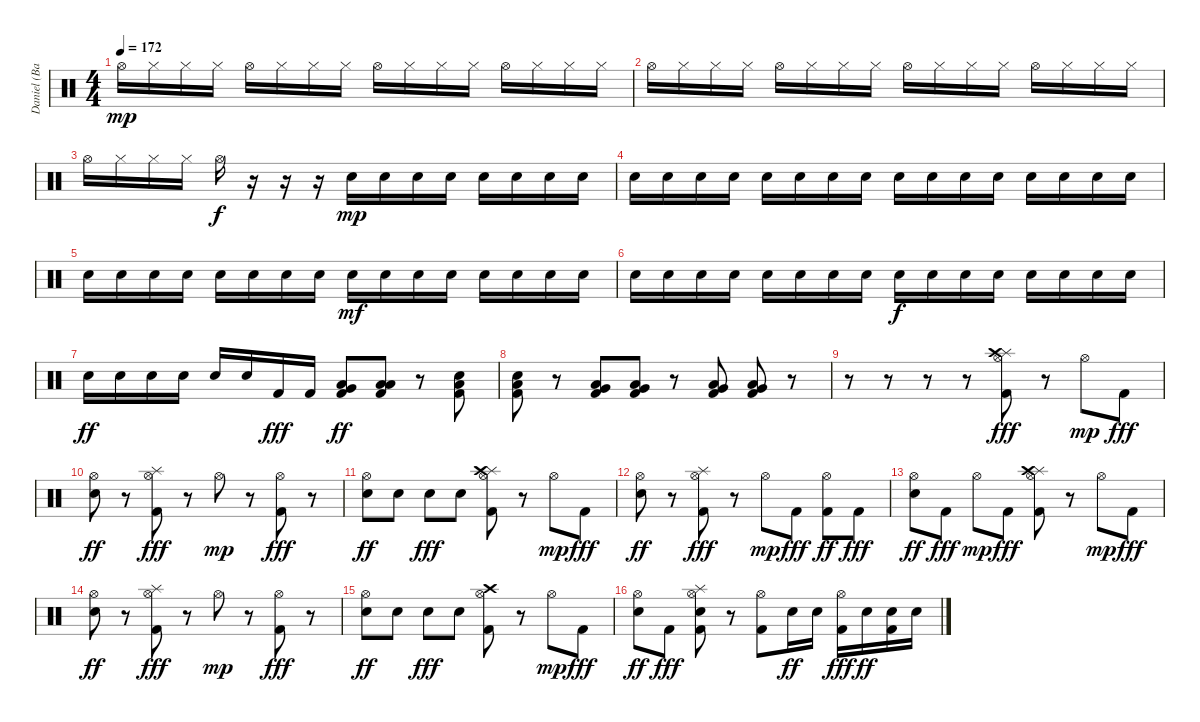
\track ("Daniel (Bateria)" "Daniel (Ba") {instrument percussion}
\staff {score}
\articulation defaults
\ts (4 4)
\tempo 172
\clef neutral
\ks c "Hi-Hat (open)".16{dy mp} "Hi-Hat (closed)".16 "Hi-Hat (closed)".16 "Hi-Hat (closed)".16 "Hi-Hat (open)".16 "Hi-Hat (closed)".16 "Hi-Hat (closed)".16 "Hi-Hat (closed)".16 "Hi-Hat (open)".16 "Hi-Hat (closed)".16 "Hi-Hat (closed)".16 "Hi-Hat (closed)".16 "Hi-Hat (open)".16 "Hi-Hat (closed)".16 "Hi-Hat (closed)".16 "Hi-Hat (closed)".16
|
"Hi-Hat (open)".16 "Hi-Hat (closed)".16 "Hi-Hat (closed)".16 "Hi-Hat (closed)".16 "Hi-Hat (open)".16 "Hi-Hat (closed)".16 "Hi-Hat (closed)".16 "Hi-Hat (closed)".16 "Hi-Hat (open)".16 "Hi-Hat (closed)".16 "Hi-Hat (closed)".16 "Hi-Hat (closed)".16 "Hi-Hat (open)".16 "Hi-Hat (closed)".16 "Hi-Hat (closed)".16 "Hi-Hat (closed)".16 |
"Hi-Hat (open)".16 "Hi-Hat (closed)".16 "Hi-Hat (closed)".16 "Hi-Hat (closed)".16 "Hi-Hat (open)".16{dy f} r.16 r.16 r.16 "Electric Snare (hit)".16{dy mp} "Electric Snare (hit)".16 "Electric Snare (hit)".16 "Electric Snare (hit)".16 "Electric Snare (hit)".16 "Electric Snare (hit)".16 "Electric Snare (hit)".16 "Electric Snare (hit)".16 |
"Electric Snare (hit)".16 "Electric Snare (hit)".16 "Electric Snare (hit)".16 "Electric Snare (hit)".16 "Electric Snare (hit)".16 "Electric Snare (hit)".16 "Electric Snare (hit)".16 "Electric Snare (hit)".16 "Electric Snare (hit)".16 "Electric Snare (hit)".16 "Electric Snare (hit)".16 "Electric Snare (hit)".16 "Electric Snare (hit)".16 "Electric Snare (hit)".16 "Electric Snare (hit)".16 "Electric Snare (hit)".16 |
"Electric Snare (hit)".16 "Electric Snare (hit)".16 "Electric Snare (hit)".16 "Electric Snare (hit)".16 "Electric Snare (hit)".16 "Electric Snare (hit)".16 "Electric Snare (hit)".16 "Electric Snare (hit)".16 "Electric Snare (hit)".16{dy mf} "Electric Snare (hit)".16 "Electric Snare (hit)".16 "Electric Snare (hit)".16 "Electric Snare (hit)".16 "Electric Snare (hit)".16 "Electric Snare (hit)".16 "Electric Snare (hit)".16 |
"Electric Snare (hit)".16 "Electric Snare (hit)".16 "Electric Snare (hit)".16 "Electric Snare (hit)".16 "Electric Snare (hit)".16 "Electric Snare (hit)".16 "Electric Snare (hit)".16 "Electric Snare (hit)".16 "Electric Snare (hit)".16{dy f} "Electric Snare (hit)".16 "Electric Snare (hit)".16 "Electric Snare (hit)".16 "Electric Snare (hit)".16 "Electric Snare (hit)".16 "Electric Snare (hit)".16 "Electric Snare (hit)".16 |
"Electric Snare (hit)".16{dy ff} "Electric Snare (hit)".16 "Electric Snare (hit)".16 "Electric Snare (hit)".16 "Electric Snare (hit)".16 "Electric Snare (hit)".16 "Kick (hit) 2".16{dy fff} "Kick (hit) 2".16 ("Very Low Tom (hit)" "Low Tom (hit)" "Kick (hit) 2").8{dy ff} ("Low Floor Tom (hit)" "Low Tom (hit)" "Kick (hit) 2").8 r.8 ("Low Tom (hit)" "Electric Snare (hit)" "Kick (hit) 2").8 |
("Low Tom (hit)" "Electric Snare (hit)" "Kick (hit) 2").8 r.8 ("Low Floor Tom (hit)" "Very Low Tom (hit)" "Kick (hit) 2").8 ("Low Floor Tom (hit)" "Very Low Tom (hit)" "Kick (hit) 2").8 r.8 ("Low Floor Tom (hit)" "Very Low Tom (hit)" "Kick (hit) 2").8 ("Low Floor Tom (hit)" "Very Low Tom (hit)" "Kick (hit) 2").8 r.8 |
r.8 r.8 r.8 r.8 ("Splash (hit)" "Hi-Hat (open)" "Crash high (hit)" "Kick (hit) 2").8{dy fff} r.8 "Hi-Hat (open)".8{dy mp} "Kick (hit) 2".8{dy fff} |
("Hi-Hat (open)" "Electric Snare (hit)").8{dy ff} r.8 ("Splash (hit)" "Hi-Hat (open)" "Kick (hit) 2").8{dy fff} r.8 "Hi-Hat (open)".8{dy mp} r.8 ("Hi-Hat (open)" "Kick (hit) 2").8{dy fff} r.8 |
("Hi-Hat (open)" "Electric Snare (hit)").8{dy ff} "Electric Snare (hit)".8 "Electric Snare (hit)".8{dy fff} "Electric Snare (hit)".8 ("Splash (hit)" "Hi-Hat (open)" "Crash high (hit)" "Kick (hit) 2").8 r.8 "Hi-Hat (open)".8{dy mp} "Kick (hit) 2".8{dy fff} |
("Hi-Hat (open)" "Electric Snare (hit)").8{dy ff} r.8 ("Splash (hit)" "Hi-Hat (open)" "Kick (hit) 2").8{dy fff} r.8 "Hi-Hat (open)".8{dy mp} "Kick (hit) 2".8{dy fff} ("Hi-Hat (open)" "Kick (hit) 2").8{dy ff} "Kick (hit) 2".8{dy fff} |
("Hi-Hat (open)" "Electric Snare (hit)").8{dy ff} "Kick (hit) 2".8{dy fff} "Hi-Hat (open)".8{dy mp} "Kick (hit) 2".8{dy fff} ("Splash (hit)" "Hi-Hat (open)" "Crash high (hit)" "Kick (hit) 2").8 r.8 "Hi-Hat (open)".8{dy mp} "Kick (hit) 2".8{dy fff} |
("Hi-Hat (open)" "Electric Snare (hit)").8{dy ff} r.8 ("Splash (hit)" "Hi-Hat (open)" "Kick (hit) 2").8{dy fff} r.8 "Hi-Hat (open)".8{dy mp} r.8 ("Hi-Hat (open)" "Kick (hit) 2").8{dy fff} r.8 |
("Hi-Hat (open)" "Electric Snare (hit)").8{dy ff} "Electric Snare (hit)".8 "Electric Snare (hit)".8{dy fff} "Electric Snare (hit)".8 ("Hi-Hat (open)" "Crash high (hit)" "Kick (hit) 2").8 r.8 "Hi-Hat (open)".8{dy mp} "Kick (hit) 2".8{dy fff} |
("Hi-Hat (open)" "Electric Snare (hit)").8{dy ff} "Kick (hit) 2".8{dy fff} ("Splash (hit)" "Hi-Hat (open)" "Electric Snare (hit)" "Kick (hit) 2").8 r.8 ("Hi-Hat (open)" "Kick (hit) 2").8 "Electric Snare (hit)".16{dy ff} "Electric Snare (hit)".16 ("Hi-Hat (open)" "Kick (hit) 2").16{dy fff} "Electric Snare (hit)".16{dy ff} ("Electric Snare (hit)" "Kick (hit) 2").16 "Electric Snare (hit)".16
